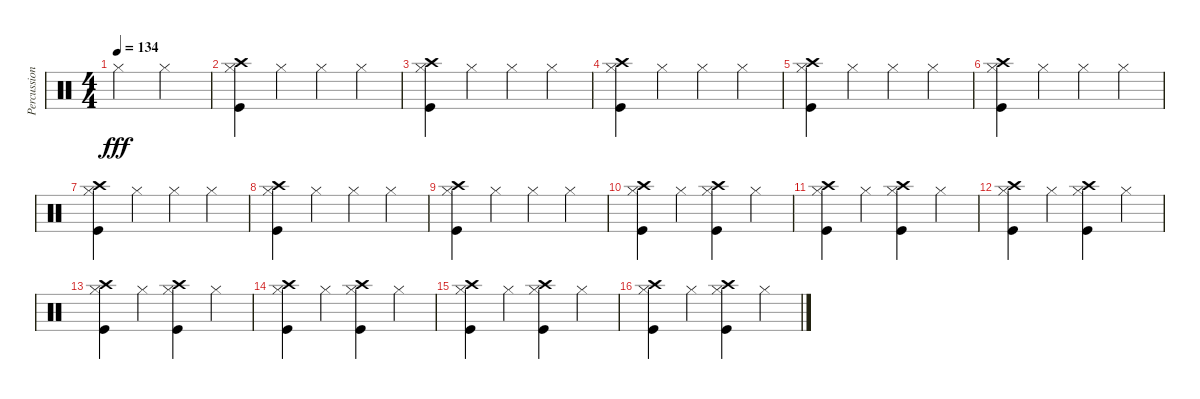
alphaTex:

\track ("Percussion (Rico)" "Percussion") {instrument percussion}
\staff {score}
\articulation defaults
\ts (4 4)
\tempo 134
\clef neutral
\ks c "Hi-Hat (closed)".2{dy fff} "Hi-Hat (closed)".2
|
("Kick (hit)" "Hi-Hat (closed)" "Crash high (hit)").4 "Hi-Hat (closed)".4 "Hi-Hat (closed)".4 "Hi-Hat (closed)".4 |
("Kick (hit)" "Hi-Hat (closed)" "Crash high (hit)").4 "Hi-Hat (closed)".4 "Hi-Hat (closed)".4 "Hi-Hat (closed)".4 |
("Kick (hit)" "Hi-Hat (closed)" "Crash high (hit)").4 "Hi-Hat (closed)".4 "Hi-Hat (closed)".4 "Hi-Hat (closed)".4 |
("Kick (hit)" "Hi-Hat (closed)" "Crash high (hit)").4 "Hi-Hat (closed)".4 "Hi-Hat (closed)".4 "Hi-Hat (closed)".4 |
("Kick (hit)" "Hi-Hat (closed)" "Crash high (hit)").4 "Hi-Hat (closed)".4 "Hi-Hat (closed)".4 "Hi-Hat (closed)".4 |
("Kick (hit)" "Hi-Hat (closed)" "Crash high (hit)").4 "Hi-Hat (closed)".4 "Hi-Hat (closed)".4 "Hi-Hat (closed)".4 |
("Kick (hit)" "Hi-Hat (closed)" "Crash high (hit)").4 "Hi-Hat (closed)".4 "Hi-Hat (closed)".4 "Hi-Hat (closed)".4 |
("Kick (hit)" "Hi-Hat (closed)" "Crash high (hit)").4 "Hi-Hat (closed)".4 "Hi-Hat (closed)".4 "Hi-Hat (closed)".4 |
("Kick (hit)" "Hi-Hat (closed)" "Crash high (hit)").4 "Hi-Hat (closed)".4 ("Kick (hit)" "Hi-Hat (closed)" "Crash high (hit)").4 "Hi-Hat (closed)".4 |
("Kick (hit)" "Hi-Hat (closed)" "Crash high (hit)").4 "Hi-Hat (closed)".4 ("Kick (hit)" "Hi-Hat (closed)" "Crash high (hit)").4 "Hi-Hat (closed)".4 |
("Kick (hit)" "Hi-Hat (closed)" "Crash high (hit)").4 "Hi-Hat (closed)".4 ("Kick (hit)" "Hi-Hat (closed)" "Crash high (hit)").4 "Hi-Hat (closed)".4 |
("Kick (hit)" "Hi-Hat (closed)" "Crash high (hit)").4 "Hi-Hat (closed)".4 ("Kick (hit)" "Hi-Hat (closed)" "Crash high (hit)").4 "Hi-Hat (closed)".4 |
("Kick (hit)" "Hi-Hat (closed)" "Crash high (hit)").4 "Hi-Hat (closed)".4 ("Kick (hit)" "Hi-Hat (closed)" "Crash high (hit)").4 "Hi-Hat (closed)".4 |
("Kick (hit)" "Hi-Hat (closed)" "Crash high (hit)").4 "Hi-Hat (closed)".4 ("Kick (hit)" "Hi-Hat (closed)" "Crash high (hit)").4 "Hi-Hat (closed)".4 |
("Kick (hit)" "Hi-Hat (closed)" "Crash high (hit)").4 "Hi-Hat (closed)".4 ("Kick (hit)" "Hi-Hat (closed)" "Crash high (hit)").4 "Hi-Hat (closed)".4
